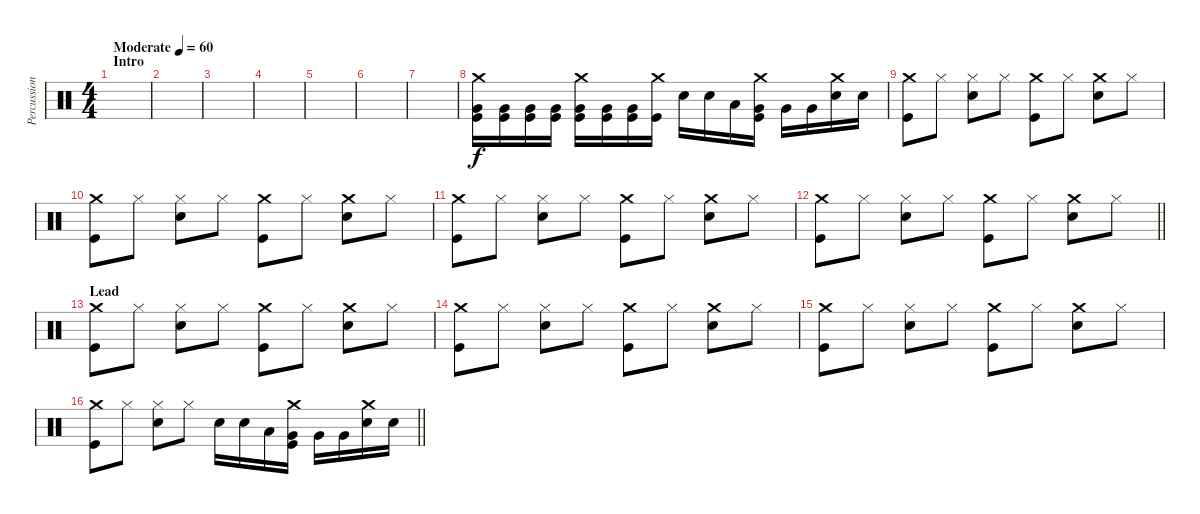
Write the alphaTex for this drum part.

\track ("Percussion" "Percussion") {instrument percussion}
\staff {score}
\articulation defaults
\ts (4 4)
\section ("" "Intro")
\tempo (60 "Moderate")
\clef neutral
\ks c
|
|
|
|
|
|
|
("Crash medium (hit)" "Very Low Tom (hit)" "Kick (hit)").16 ("Very Low Tom (hit)" "Kick (hit)").16 ("Very Low Tom (hit)" "Kick (hit)").16 ("Very Low Tom (hit)" "Kick (hit)").16 ("Crash medium (hit)" "Very Low Tom (hit)" "Kick (hit)").16 ("Very Low Tom (hit)" "Kick (hit)").16 ("Very Low Tom (hit)" "Kick (hit)").16 ("Crash medium (hit)" "Kick (hit)").16 "Snare (hit) 2".16 "Snare (hit) 2".16 "Low Tom (hit)".16 ("Crash medium (hit)" "Very Low Tom (hit)" "Kick (hit)").16 "Very Low Tom (hit)".16 "Very Low Tom (hit)".16 ("Crash medium (hit)" "Snare (hit) 2").16 "Snare (hit) 2".16 |
("Crash medium (hit)" "Kick (hit)").8 "Hi-Hat (closed)".8 ("Hi-Hat (closed)" "Snare (hit) 2").8 "Hi-Hat (closed)".8 ("Crash medium (hit)" "Kick (hit)").8 "Hi-Hat (closed)".8 ("Crash medium (hit)" "Snare (hit) 2").8 "Hi-Hat (closed)".8 |
("Crash medium (hit)" "Kick (hit)").8 "Hi-Hat (closed)".8 ("Hi-Hat (closed)" "Snare (hit) 2").8 "Hi-Hat (closed)".8 ("Crash medium (hit)" "Kick (hit)").8 "Hi-Hat (closed)".8 ("Crash medium (hit)" "Snare (hit) 2").8 "Hi-Hat (closed)".8 |
("Crash medium (hit)" "Kick (hit)").8 "Hi-Hat (closed)".8 ("Hi-Hat (closed)" "Snare (hit) 2").8 "Hi-Hat (closed)".8 ("Crash medium (hit)" "Kick (hit)").8 "Hi-Hat (closed)".8 ("Crash medium (hit)" "Snare (hit) 2").8 "Hi-Hat (closed)".8 |
\barLineRight lightlight
("Crash medium (hit)" "Kick (hit)").8 "Hi-Hat (closed)".8 ("Hi-Hat (closed)" "Snare (hit) 2").8 "Hi-Hat (closed)".8 ("Crash medium (hit)" "Kick (hit)").8 "Hi-Hat (closed)".8 ("Crash medium (hit)" "Snare (hit) 2").8 "Hi-Hat (closed)".8 |
\section ("" "Lead")
("Crash medium (hit)" "Kick (hit)").8 "Hi-Hat (closed)".8 ("Hi-Hat (closed)" "Snare (hit) 2").8 "Hi-Hat (closed)".8 ("Crash medium (hit)" "Kick (hit)").8 "Hi-Hat (closed)".8 ("Crash medium (hit)" "Snare (hit) 2").8 "Hi-Hat (closed)".8 |
("Crash medium (hit)" "Kick (hit)").8 "Hi-Hat (closed)".8 ("Hi-Hat (closed)" "Snare (hit) 2").8 "Hi-Hat (closed)".8 ("Crash medium (hit)" "Kick (hit)").8 "Hi-Hat (closed)".8 ("Crash medium (hit)" "Snare (hit) 2").8 "Hi-Hat (closed)".8 |
("Crash medium (hit)" "Kick (hit)").8 "Hi-Hat (closed)".8 ("Hi-Hat (closed)" "Snare (hit) 2").8 "Hi-Hat (closed)".8 ("Crash medium (hit)" "Kick (hit)").8 "Hi-Hat (closed)".8 ("Crash medium (hit)" "Snare (hit) 2").8 "Hi-Hat (closed)".8 |
\barLineRight lightlight
("Crash medium (hit)" "Kick (hit)").8 "Hi-Hat (closed)".8 ("Hi-Hat (closed)" "Snare (hit) 2").8 "Hi-Hat (closed)".8 "Snare (hit) 2".16 "Snare (hit) 2".16 "Low Tom (hit)".16 ("Crash medium (hit)" "Very Low Tom (hit)" "Kick (hit)").16 "Very Low Tom (hit)".16 "Very Low Tom (hit)".16 ("Crash medium (hit)" "Snare (hit) 2").16 "Snare (hit) 2".16
